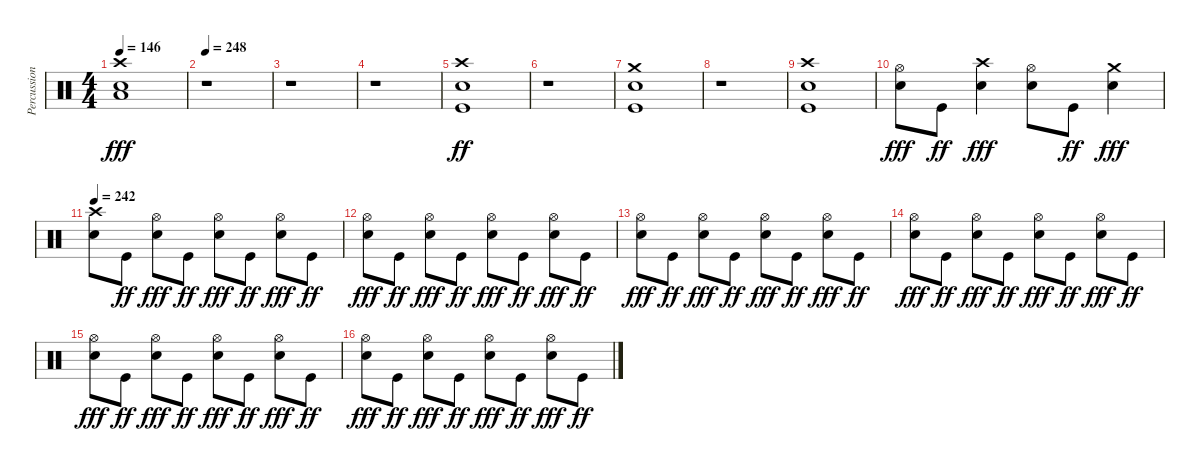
\track ("Percussion" "Percussion") {instrument percussion}
\staff {score}
\articulation defaults
\ts (4 4)
\tempo 146
\clef neutral
\ks c
("Crash high (hit)" "Low Floor Tom (hit)" "Snare (hit) 2").1{dy fff} |
\tempo 248
r.1 |
r.1 |
r.1 |
("Crash high (hit)" "Snare (hit) 2" "Kick (hit)").1{dy ff} |
r.1 |
("Crash medium (hit)" "Snare (hit) 2" "Kick (hit)").1 |
r.1 |
("Crash high (hit)" "Snare (hit) 2" "Kick (hit)").1 |
("Hi-Hat (open)" "Snare (hit) 2").8{dy fff} "Kick (hit)".8{dy ff} ("Crash high (hit)" "Snare (hit) 2").4{dy fff} ("Hi-Hat (open)" "Snare (hit) 2").8 "Kick (hit)".8{dy ff} ("Crash medium (hit)" "Snare (hit) 2").4{dy fff} |
\tempo 242
("Crash high (hit)" "Snare (hit) 2").8 "Kick (hit)".8{dy ff} ("Hi-Hat (open)" "Snare (hit) 2").8{dy fff} "Kick (hit)".8{dy ff} ("Hi-Hat (open)" "Snare (hit) 2").8{dy fff} "Kick (hit)".8{dy ff} ("Hi-Hat (open)" "Snare (hit) 2").8{dy fff} "Kick (hit)".8{dy ff} |
("Hi-Hat (open)" "Snare (hit) 2").8{dy fff} "Kick (hit)".8{dy ff} ("Hi-Hat (open)" "Snare (hit) 2").8{dy fff} "Kick (hit)".8{dy ff} ("Hi-Hat (open)" "Snare (hit) 2").8{dy fff} "Kick (hit)".8{dy ff} ("Hi-Hat (open)" "Snare (hit) 2").8{dy fff} "Kick (hit)".8{dy ff} |
("Hi-Hat (open)" "Snare (hit) 2").8{dy fff} "Kick (hit)".8{dy ff} ("Hi-Hat (open)" "Snare (hit) 2").8{dy fff} "Kick (hit)".8{dy ff} ("Hi-Hat (open)" "Snare (hit) 2").8{dy fff} "Kick (hit)".8{dy ff} ("Hi-Hat (open)" "Snare (hit) 2").8{dy fff} "Kick (hit)".8{dy ff} |
("Hi-Hat (open)" "Snare (hit) 2").8{dy fff} "Kick (hit)".8{dy ff} ("Hi-Hat (open)" "Snare (hit) 2").8{dy fff} "Kick (hit)".8{dy ff} ("Hi-Hat (open)" "Snare (hit) 2").8{dy fff} "Kick (hit)".8{dy ff} ("Hi-Hat (open)" "Snare (hit) 2").8{dy fff} "Kick (hit)".8{dy ff} |
("Hi-Hat (open)" "Snare (hit) 2").8{dy fff} "Kick (hit)".8{dy ff} ("Hi-Hat (open)" "Snare (hit) 2").8{dy fff} "Kick (hit)".8{dy ff} ("Hi-Hat (open)" "Snare (hit) 2").8{dy fff} "Kick (hit)".8{dy ff} ("Hi-Hat (open)" "Snare (hit) 2").8{dy fff} "Kick (hit)".8{dy ff} |
("Hi-Hat (open)" "Snare (hit) 2").8{dy fff} "Kick (hit)".8{dy ff} ("Hi-Hat (open)" "Snare (hit) 2").8{dy fff} "Kick (hit)".8{dy ff} ("Hi-Hat (open)" "Snare (hit) 2").8{dy fff} "Kick (hit)".8{dy ff} ("Hi-Hat (open)" "Snare (hit) 2").8{dy fff} "Kick (hit)".8{dy ff}
